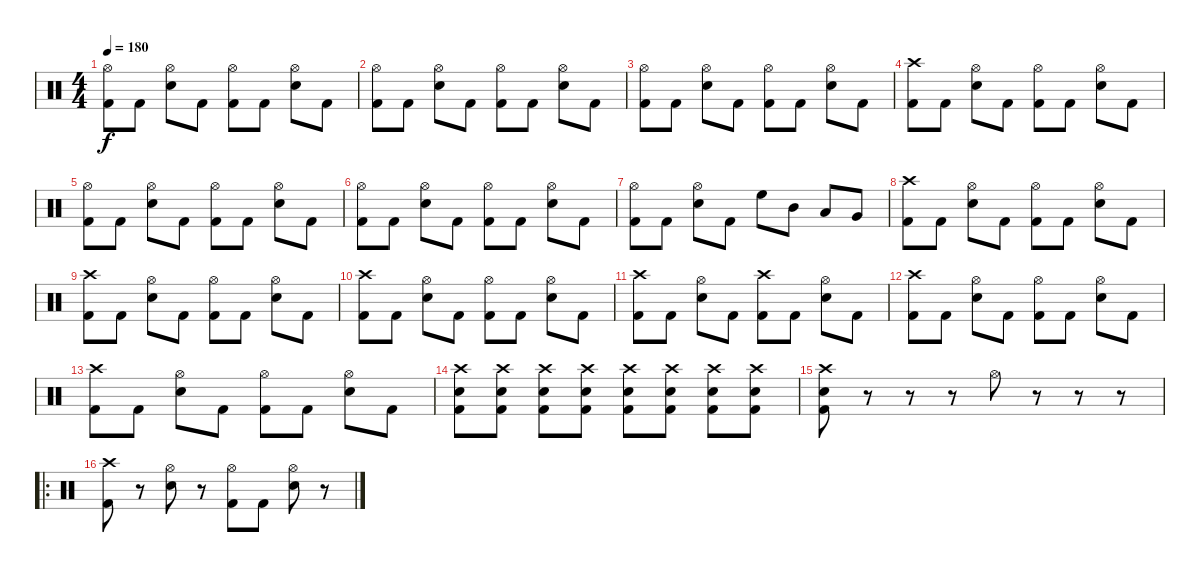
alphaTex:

\track "" {instrument percussion}
\staff {score}
\articulation defaults
\ts (4 4)
\tempo 180
\clef neutral
\ks c
("Hi-Hat (open)" "Kick (hit) 2").8{dy f} "Kick (hit) 2".8 ("Hi-Hat (open)" "Electric Snare (hit)").8 "Kick (hit) 2".8 ("Hi-Hat (open)" "Kick (hit) 2").8 "Kick (hit) 2".8 ("Hi-Hat (open)" "Electric Snare (hit)").8 "Kick (hit) 2".8 |
("Hi-Hat (open)" "Kick (hit) 2").8 "Kick (hit) 2".8 ("Hi-Hat (open)" "Electric Snare (hit)").8 "Kick (hit) 2".8 ("Hi-Hat (open)" "Kick (hit) 2").8 "Kick (hit) 2".8 ("Hi-Hat (open)" "Electric Snare (hit)").8 "Kick (hit) 2".8 |
("Hi-Hat (open)" "Kick (hit) 2").8 "Kick (hit) 2".8 ("Hi-Hat (open)" "Electric Snare (hit)").8 "Kick (hit) 2".8 ("Hi-Hat (open)" "Kick (hit) 2").8 "Kick (hit) 2".8 ("Hi-Hat (open)" "Electric Snare (hit)").8 "Kick (hit) 2".8 |
("Crash high (hit)" "Kick (hit) 2").8 "Kick (hit) 2".8 ("Hi-Hat (open)" "Electric Snare (hit)").8 "Kick (hit) 2".8 ("Hi-Hat (open)" "Kick (hit) 2").8 "Kick (hit) 2".8 ("Hi-Hat (open)" "Electric Snare (hit)").8 "Kick (hit) 2".8 |
("Hi-Hat (open)" "Kick (hit) 2").8 "Kick (hit) 2".8 ("Hi-Hat (open)" "Electric Snare (hit)").8 "Kick (hit) 2".8 ("Hi-Hat (open)" "Kick (hit) 2").8 "Kick (hit) 2".8 ("Hi-Hat (open)" "Electric Snare (hit)").8 "Kick (hit) 2".8 |
("Hi-Hat (open)" "Kick (hit) 2").8 "Kick (hit) 2".8 ("Hi-Hat (open)" "Electric Snare (hit)").8 "Kick (hit) 2".8 ("Hi-Hat (open)" "Kick (hit) 2").8 "Kick (hit) 2".8 ("Hi-Hat (open)" "Electric Snare (hit)").8 "Kick (hit) 2".8 |
("Hi-Hat (open)" "Kick (hit) 2").8 "Kick (hit) 2".8 ("Hi-Hat (open)" "Electric Snare (hit)").8 "Kick (hit) 2".8 "High Floor Tom (hit)".8 "Mid Tom (hit)".8 "Low Tom (hit)".8 "Very Low Tom (hit)".8 |
("Crash high (hit)" "Kick (hit) 2").8 "Kick (hit) 2".8 ("Hi-Hat (open)" "Electric Snare (hit)").8 "Kick (hit) 2".8 ("Hi-Hat (open)" "Kick (hit) 2").8 "Kick (hit) 2".8 ("Hi-Hat (open)" "Electric Snare (hit)").8 "Kick (hit) 2".8 |
("Crash high (hit)" "Kick (hit) 2").8 "Kick (hit) 2".8 ("Hi-Hat (open)" "Electric Snare (hit)").8 "Kick (hit) 2".8 ("Hi-Hat (open)" "Kick (hit) 2").8 "Kick (hit) 2".8 ("Hi-Hat (open)" "Electric Snare (hit)").8 "Kick (hit) 2".8 |
("Crash high (hit)" "Kick (hit) 2").8 "Kick (hit) 2".8 ("Hi-Hat (open)" "Electric Snare (hit)").8 "Kick (hit) 2".8 ("Hi-Hat (open)" "Kick (hit) 2").8 "Kick (hit) 2".8 ("Hi-Hat (open)" "Electric Snare (hit)").8 "Kick (hit) 2".8 |
("Crash high (hit)" "Kick (hit) 2").8 "Kick (hit) 2".8 ("Hi-Hat (open)" "Electric Snare (hit)").8 "Kick (hit) 2".8 ("Crash high (hit)" "Kick (hit) 2").8 "Kick (hit) 2".8 ("Hi-Hat (open)" "Electric Snare (hit)").8 "Kick (hit) 2".8 |
("Crash high (hit)" "Kick (hit) 2").8 "Kick (hit) 2".8 ("Hi-Hat (open)" "Electric Snare (hit)").8 "Kick (hit) 2".8 ("Hi-Hat (open)" "Kick (hit) 2").8 "Kick (hit) 2".8 ("Hi-Hat (open)" "Electric Snare (hit)").8 "Kick (hit) 2".8 |
("Crash high (hit)" "Kick (hit) 2").8 "Kick (hit) 2".8 ("Hi-Hat (open)" "Electric Snare (hit)").8 "Kick (hit) 2".8 ("Hi-Hat (open)" "Kick (hit) 2").8 "Kick (hit) 2".8 ("Hi-Hat (open)" "Electric Snare (hit)").8 "Kick (hit) 2".8 |
("Crash high (hit)" "Kick (hit) 2" "Electric Snare (hit)").8 ("Crash high (hit)" "Kick (hit) 2" "Electric Snare (hit)").8 ("Crash high (hit)" "Kick (hit) 2" "Electric Snare (hit)").8 ("Crash high (hit)" "Kick (hit) 2" "Electric Snare (hit)").8 ("Crash high (hit)" "Kick (hit) 2" "Electric Snare (hit)").8 ("Crash high (hit)" "Kick (hit) 2" "Electric Snare (hit)").8 ("Crash high (hit)" "Kick (hit) 2" "Electric Snare (hit)").8 ("Crash high (hit)" "Kick (hit) 2" "Electric Snare (hit)").8 |
("Crash high (hit)" "Kick (hit) 2" "Electric Snare (hit)").8 r.8 r.8 r.8 "Hi-Hat (open)".8 r.8 r.8 r.8 |
\ro
("Crash high (hit)" "Kick (hit) 2").8 r.8 ("Hi-Hat (open)" "Electric Snare (hit)").8 r.8 ("Hi-Hat (open)" "Kick (hit) 2").8 "Kick (hit) 2".8 ("Hi-Hat (open)" "Electric Snare (hit)").8 r.8
